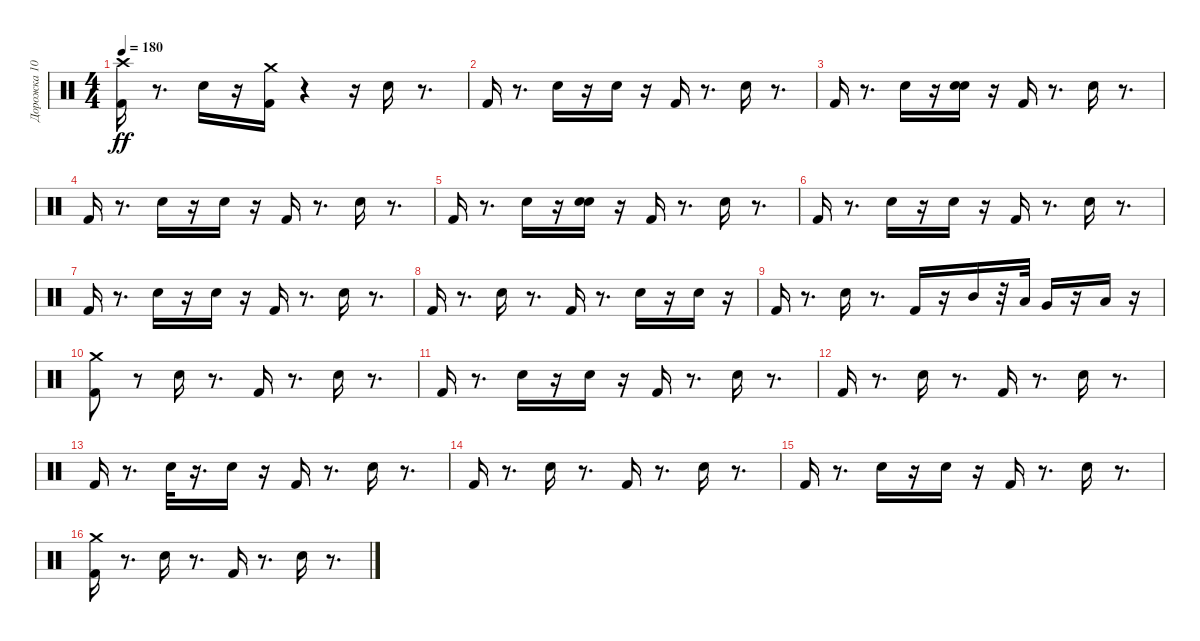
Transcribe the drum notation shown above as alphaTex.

\track ("Дорожка 10" "Дорожка 10") {instrument percussion}
\staff {score}
\articulation defaults
\ts (4 4)
\tempo 180
\clef neutral
\ks c
("Crash high (hit)" "Kick (hit) 2").16{dy ff} r.8{d} "Electric Snare (hit)".16 r.16 ("Crash medium (hit)" "Kick (hit) 2").16 r.4 r.16 "Electric Snare (hit)".16 r.8{d} |
"Kick (hit) 2".16 r.8{d} "Electric Snare (hit)".16 r.16 "Electric Snare (hit)".16 r.16 "Kick (hit) 2".16 r.8{d} "Electric Snare (hit)".16 r.8{d} |
"Kick (hit) 2".16 r.8{d} "Electric Snare (hit)".16 r.16 ("Electric Snare (hit)" "Hand Clap (hit)").16 r.16 "Kick (hit) 2".16 r.8{d} "Electric Snare (hit)".16 r.8{d} |
"Kick (hit) 2".16 r.8{d} "Electric Snare (hit)".16 r.16 "Electric Snare (hit)".16 r.16 "Kick (hit) 2".16 r.8{d} "Electric Snare (hit)".16 r.8{d} |
"Kick (hit) 2".16 r.8{d} "Electric Snare (hit)".16 r.16 ("Hand Clap (hit)" "Electric Snare (hit)").16 r.16 "Kick (hit) 2".16 r.8{d} "Electric Snare (hit)".16 r.8{d} |
"Kick (hit) 2".16 r.8{d} "Electric Snare (hit)".16 r.16 "Electric Snare (hit)".16 r.16 "Kick (hit) 2".16 r.8{d} "Electric Snare (hit)".16 r.8{d} |
"Kick (hit) 2".16 r.8{d} "Electric Snare (hit)".16 r.16 "Electric Snare (hit)".16 r.16 "Kick (hit) 2".16 r.8{d} "Electric Snare (hit)".16 r.8{d} |
"Kick (hit) 2".16 r.8{d} "Electric Snare (hit)".16 r.8{d} "Kick (hit) 2".16 r.8{d} "Electric Snare (hit)".16 r.16 "Electric Snare (hit)".16 r.16 |
"Kick (hit) 2".16 r.8{d} "Electric Snare (hit)".16 r.8{d} "Kick (hit) 2".16 r.16 "Mid Tom (hit)".16 r.32 "Low Tom (hit)".32 "Very Low Tom (hit)".16 r.16 "Low Floor Tom (hit)".16 r.16 |
("Crash medium (hit)" "Kick (hit) 2").8 r.8 "Electric Snare (hit)".16 r.8{d} "Kick (hit) 2".16 r.8{d} "Electric Snare (hit)".16 r.8{d} |
"Kick (hit) 2".16 r.8{d} "Electric Snare (hit)".16 r.16 "Electric Snare (hit)".16 r.16 "Kick (hit) 2".16 r.8{d} "Electric Snare (hit)".16 r.8{d} |
"Kick (hit) 2".16 r.8{d} "Electric Snare (hit)".16 r.8{d} "Kick (hit) 2".16 r.8{d} "Electric Snare (hit)".16 r.8{d} |
"Kick (hit) 2".16 r.8{d} "Electric Snare (hit)".32 r.16{d} "Electric Snare (hit)".16 r.16 "Kick (hit) 2".16 r.8{d} "Electric Snare (hit)".16 r.8{d} |
"Kick (hit) 2".16 r.8{d} "Electric Snare (hit)".16 r.8{d} "Kick (hit) 2".16 r.8{d} "Electric Snare (hit)".16 r.8{d} |
"Kick (hit) 2".16 r.8{d} "Electric Snare (hit)".16 r.16 "Electric Snare (hit)".16 r.16 "Kick (hit) 2".16 r.8{d} "Electric Snare (hit)".16 r.8{d} |
("Crash medium (hit)" "Kick (hit) 2").16 r.8{d} "Electric Snare (hit)".16 r.8{d} "Kick (hit) 2".16 r.8{d} "Electric Snare (hit)".16 r.8{d}
